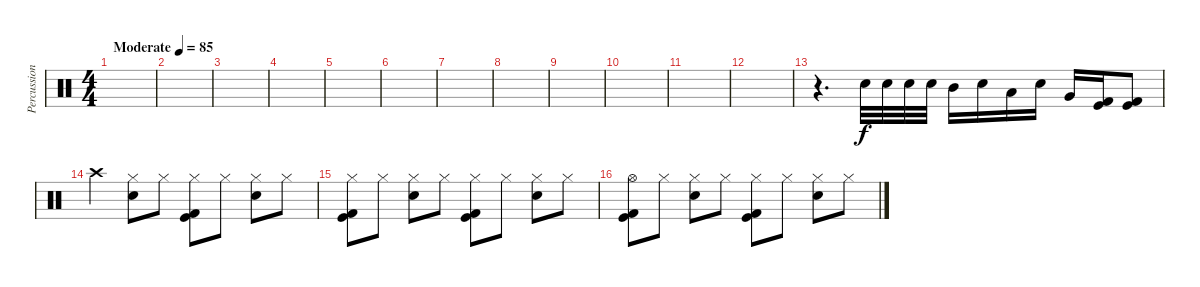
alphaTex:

\track ("Percussion" "Percussion") {instrument percussion}
\staff {score}
\articulation defaults
\ts (4 4)
\tempo (85 "Moderate")
\clef neutral
\ks c
|
|
|
|
|
|
|
|
|
|
|
|
r.4{d} "Snare (hit) 2".32 "Snare (hit) 2".32 "Snare (hit) 2".32 "Snare (hit) 2".32 "Mid Tom (hit)".16 "Snare (hit) 2".16 "Low Tom (hit)".16 "Snare (hit) 2".16 "Very Low Tom (hit)".16 ("Kick (hit)" "Kick (hit) 2").16 ("Kick (hit)" "Kick (hit) 2").8 |
"Crash high (hit)".4 ("Hi-Hat (closed)" "Snare (hit) 2").8 "Hi-Hat (closed)".8 ("Hi-Hat (closed)" "Kick (hit)" "Kick (hit) 2").8 "Hi-Hat (closed)".8 ("Hi-Hat (closed)" "Snare (hit) 2").8 "Hi-Hat (closed)".8 |
("Hi-Hat (closed)" "Kick (hit)" "Kick (hit) 2").8 "Hi-Hat (closed)".8 ("Hi-Hat (closed)" "Snare (hit) 2").8 "Hi-Hat (closed)".8 ("Hi-Hat (closed)" "Kick (hit)" "Kick (hit) 2").8 "Hi-Hat (closed)".8 ("Hi-Hat (closed)" "Snare (hit) 2").8 "Hi-Hat (closed)".8 |
("Hi-Hat (open)" "Kick (hit)" "Kick (hit) 2").8 "Hi-Hat (closed)".8 ("Hi-Hat (closed)" "Snare (hit) 2").8 "Hi-Hat (closed)".8 ("Hi-Hat (closed)" "Kick (hit)" "Kick (hit) 2").8 "Hi-Hat (closed)".8 ("Hi-Hat (closed)" "Snare (hit) 2").8 "Hi-Hat (closed)".8
